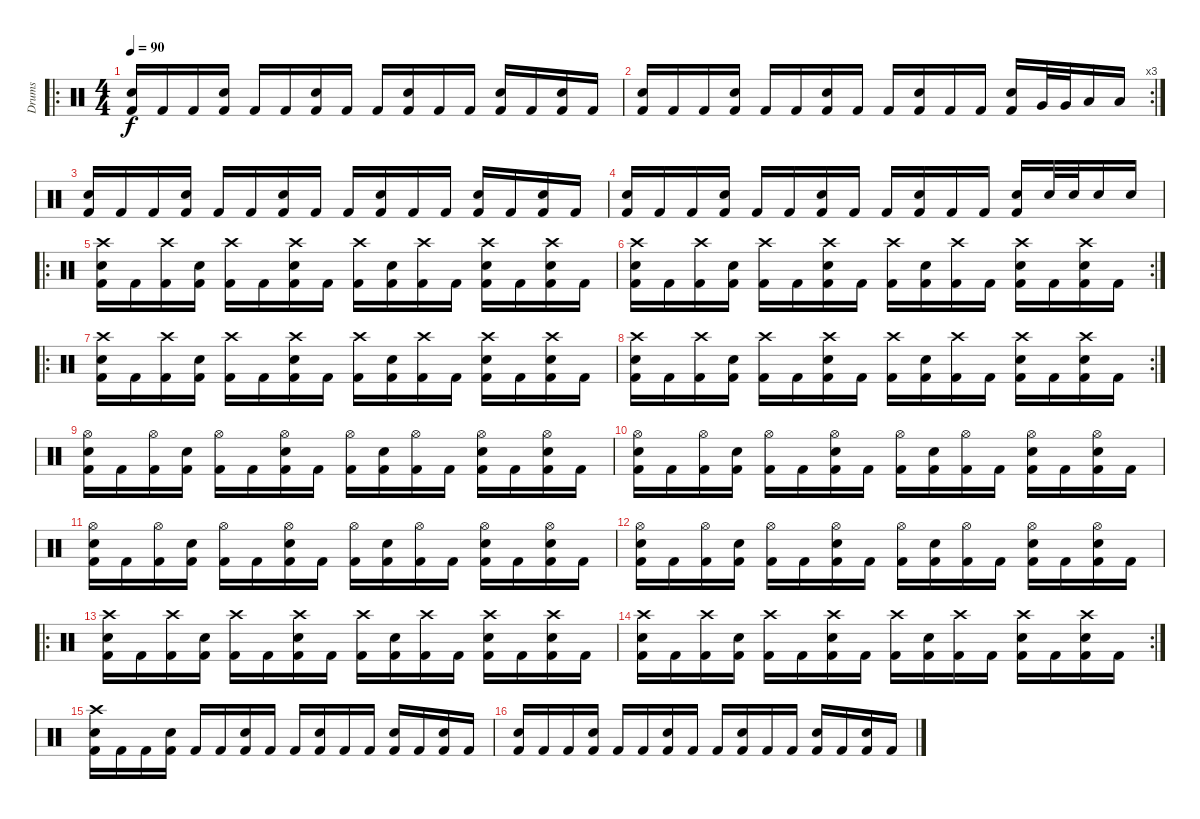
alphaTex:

\track ("Drums" "Drums") {instrument percussion}
\staff {score}
\articulation defaults
\ro
\ts (4 4)
\tempo 90
\clef neutral
\ks c
("Kick (hit) 2" "Snare (hit) 2").16{dy f} "Kick (hit) 2".16 "Kick (hit) 2".16 ("Kick (hit) 2" "Snare (hit) 2").16 "Kick (hit) 2".16 "Kick (hit) 2".16 ("Kick (hit) 2" "Snare (hit) 2").16 "Kick (hit) 2".16 "Kick (hit) 2".16 ("Kick (hit) 2" "Snare (hit) 2").16 "Kick (hit) 2".16 "Kick (hit) 2".16 ("Kick (hit) 2" "Snare (hit) 2").16 "Kick (hit) 2".16 ("Kick (hit) 2" "Snare (hit) 2").16 "Kick (hit) 2".16 |
\rc 3
("Kick (hit) 2" "Snare (hit) 2").16 "Kick (hit) 2".16 "Kick (hit) 2".16 ("Kick (hit) 2" "Snare (hit) 2").16 "Kick (hit) 2".16 "Kick (hit) 2".16 ("Kick (hit) 2" "Snare (hit) 2").16 "Kick (hit) 2".16 "Kick (hit) 2".16 ("Kick (hit) 2" "Snare (hit) 2").16 "Kick (hit) 2".16 "Kick (hit) 2".16 ("Kick (hit) 2" "Snare (hit) 2").16 "Very Low Tom (hit)".32 "Very Low Tom (hit)".32 "Low Floor Tom (hit)".16 "Low Floor Tom (hit)".16 |
("Kick (hit) 2" "Snare (hit) 2").16 "Kick (hit) 2".16 "Kick (hit) 2".16 ("Kick (hit) 2" "Snare (hit) 2").16 "Kick (hit) 2".16 "Kick (hit) 2".16 ("Kick (hit) 2" "Snare (hit) 2").16 "Kick (hit) 2".16 "Kick (hit) 2".16 ("Kick (hit) 2" "Snare (hit) 2").16 "Kick (hit) 2".16 "Kick (hit) 2".16 ("Kick (hit) 2" "Snare (hit) 2").16 "Kick (hit) 2".16 ("Kick (hit) 2" "Snare (hit) 2").16 "Kick (hit) 2".16 |
("Kick (hit) 2" "Snare (hit) 2").16 "Kick (hit) 2".16 "Kick (hit) 2".16 ("Kick (hit) 2" "Snare (hit) 2").16 "Kick (hit) 2".16 "Kick (hit) 2".16 ("Kick (hit) 2" "Snare (hit) 2").16 "Kick (hit) 2".16 "Kick (hit) 2".16 ("Kick (hit) 2" "Snare (hit) 2").16 "Kick (hit) 2".16 "Kick (hit) 2".16 ("Kick (hit) 2" "Snare (hit) 2").16 "Snare (hit) 2".32 "Snare (hit) 2".32 "Snare (hit) 2".16 "Snare (hit) 2".16 |
\ro
("Kick (hit) 2" "Snare (hit) 2" "Crash high (hit)").16 "Kick (hit) 2".16 ("Kick (hit) 2" "Crash high (hit)").16 ("Kick (hit) 2" "Snare (hit) 2").16 ("Kick (hit) 2" "Crash high (hit)").16 "Kick (hit) 2".16 ("Kick (hit) 2" "Snare (hit) 2" "Crash high (hit)").16 "Kick (hit) 2".16 ("Kick (hit) 2" "Crash high (hit)").16 ("Kick (hit) 2" "Snare (hit) 2").16 ("Kick (hit) 2" "Crash high (hit)").16 "Kick (hit) 2".16 ("Kick (hit) 2" "Snare (hit) 2" "Crash high (hit)").16 "Kick (hit) 2".16 ("Kick (hit) 2" "Snare (hit) 2" "Crash high (hit)").16 "Kick (hit) 2".16 |
\rc 2
("Kick (hit) 2" "Snare (hit) 2" "Crash high (hit)").16 "Kick (hit) 2".16 ("Kick (hit) 2" "Crash high (hit)").16 ("Kick (hit) 2" "Snare (hit) 2").16 ("Kick (hit) 2" "Crash high (hit)").16 "Kick (hit) 2".16 ("Kick (hit) 2" "Snare (hit) 2" "Crash high (hit)").16 "Kick (hit) 2".16 ("Kick (hit) 2" "Crash high (hit)").16 ("Kick (hit) 2" "Snare (hit) 2").16 ("Kick (hit) 2" "Crash high (hit)").16 "Kick (hit) 2".16 ("Kick (hit) 2" "Snare (hit) 2" "Crash high (hit)").16 "Kick (hit) 2".16 ("Kick (hit) 2" "Snare (hit) 2" "Crash high (hit)").16 "Kick (hit) 2".16 |
\ro
("Kick (hit) 2" "Snare (hit) 2" "Crash high (hit)").16 "Kick (hit) 2".16 ("Kick (hit) 2" "Crash high (hit)").16 ("Kick (hit) 2" "Snare (hit) 2").16 ("Kick (hit) 2" "Crash high (hit)").16 "Kick (hit) 2".16 ("Kick (hit) 2" "Snare (hit) 2" "Crash high (hit)").16 "Kick (hit) 2".16 ("Kick (hit) 2" "Crash high (hit)").16 ("Kick (hit) 2" "Snare (hit) 2").16 ("Kick (hit) 2" "Crash high (hit)").16 "Kick (hit) 2".16 ("Kick (hit) 2" "Snare (hit) 2" "Crash high (hit)").16 "Kick (hit) 2".16 ("Kick (hit) 2" "Snare (hit) 2" "Crash high (hit)").16 "Kick (hit) 2".16 |
\rc 2
("Kick (hit) 2" "Snare (hit) 2" "Crash high (hit)").16 "Kick (hit) 2".16 ("Kick (hit) 2" "Crash high (hit)").16 ("Kick (hit) 2" "Snare (hit) 2").16 ("Kick (hit) 2" "Crash high (hit)").16 "Kick (hit) 2".16 ("Kick (hit) 2" "Snare (hit) 2" "Crash high (hit)").16 "Kick (hit) 2".16 ("Kick (hit) 2" "Crash high (hit)").16 ("Kick (hit) 2" "Snare (hit) 2").16 ("Kick (hit) 2" "Crash high (hit)").16 "Kick (hit) 2".16 ("Kick (hit) 2" "Snare (hit) 2" "Crash high (hit)").16 "Kick (hit) 2".16 ("Kick (hit) 2" "Snare (hit) 2" "Crash high (hit)").16 "Kick (hit) 2".16 |
("Kick (hit) 2" "Snare (hit) 2" "Hi-Hat (open)").16 "Kick (hit) 2".16 ("Kick (hit) 2" "Hi-Hat (open)").16 ("Kick (hit) 2" "Snare (hit) 2").16 ("Kick (hit) 2" "Hi-Hat (open)").16 "Kick (hit) 2".16 ("Kick (hit) 2" "Snare (hit) 2" "Hi-Hat (open)").16 "Kick (hit) 2".16 ("Kick (hit) 2" "Hi-Hat (open)").16 ("Kick (hit) 2" "Snare (hit) 2").16 ("Kick (hit) 2" "Hi-Hat (open)").16 "Kick (hit) 2".16 ("Kick (hit) 2" "Snare (hit) 2" "Hi-Hat (open)").16 "Kick (hit) 2".16 ("Kick (hit) 2" "Snare (hit) 2" "Hi-Hat (open)").16 "Kick (hit) 2".16 |
("Kick (hit) 2" "Snare (hit) 2" "Hi-Hat (open)").16 "Kick (hit) 2".16 ("Kick (hit) 2" "Hi-Hat (open)").16 ("Kick (hit) 2" "Snare (hit) 2").16 ("Kick (hit) 2" "Hi-Hat (open)").16 "Kick (hit) 2".16 ("Kick (hit) 2" "Snare (hit) 2" "Hi-Hat (open)").16 "Kick (hit) 2".16 ("Kick (hit) 2" "Hi-Hat (open)").16 ("Kick (hit) 2" "Snare (hit) 2").16 ("Kick (hit) 2" "Hi-Hat (open)").16 "Kick (hit) 2".16 ("Kick (hit) 2" "Snare (hit) 2" "Hi-Hat (open)").16 "Kick (hit) 2".16 ("Kick (hit) 2" "Snare (hit) 2" "Hi-Hat (open)").16 "Kick (hit) 2".16 |
("Kick (hit) 2" "Snare (hit) 2" "Hi-Hat (open)").16 "Kick (hit) 2".16 ("Kick (hit) 2" "Hi-Hat (open)").16 ("Kick (hit) 2" "Snare (hit) 2").16 ("Kick (hit) 2" "Hi-Hat (open)").16 "Kick (hit) 2".16 ("Kick (hit) 2" "Snare (hit) 2" "Hi-Hat (open)").16 "Kick (hit) 2".16 ("Kick (hit) 2" "Hi-Hat (open)").16 ("Kick (hit) 2" "Snare (hit) 2").16 ("Kick (hit) 2" "Hi-Hat (open)").16 "Kick (hit) 2".16 ("Kick (hit) 2" "Snare (hit) 2" "Hi-Hat (open)").16 "Kick (hit) 2".16 ("Kick (hit) 2" "Snare (hit) 2" "Hi-Hat (open)").16 "Kick (hit) 2".16 |
("Kick (hit) 2" "Snare (hit) 2" "Hi-Hat (open)").16 "Kick (hit) 2".16 ("Kick (hit) 2" "Hi-Hat (open)").16 ("Kick (hit) 2" "Snare (hit) 2").16 ("Kick (hit) 2" "Hi-Hat (open)").16 "Kick (hit) 2".16 ("Kick (hit) 2" "Snare (hit) 2" "Hi-Hat (open)").16 "Kick (hit) 2".16 ("Kick (hit) 2" "Hi-Hat (open)").16 ("Kick (hit) 2" "Snare (hit) 2").16 ("Kick (hit) 2" "Hi-Hat (open)").16 "Kick (hit) 2".16 ("Kick (hit) 2" "Snare (hit) 2" "Hi-Hat (open)").16 "Kick (hit) 2".16 ("Kick (hit) 2" "Snare (hit) 2" "Hi-Hat (open)").16 "Kick (hit) 2".16 |
\ro
("Kick (hit) 2" "Snare (hit) 2" "Crash high (hit)").16 "Kick (hit) 2".16 ("Kick (hit) 2" "Crash high (hit)").16 ("Kick (hit) 2" "Snare (hit) 2").16 ("Kick (hit) 2" "Crash high (hit)").16 "Kick (hit) 2".16 ("Kick (hit) 2" "Snare (hit) 2" "Crash high (hit)").16 "Kick (hit) 2".16 ("Kick (hit) 2" "Crash high (hit)").16 ("Kick (hit) 2" "Snare (hit) 2").16 ("Kick (hit) 2" "Crash high (hit)").16 "Kick (hit) 2".16 ("Kick (hit) 2" "Snare (hit) 2" "Crash high (hit)").16 "Kick (hit) 2".16 ("Kick (hit) 2" "Snare (hit) 2" "Crash high (hit)").16 "Kick (hit) 2".16 |
\rc 2
("Kick (hit) 2" "Snare (hit) 2" "Crash high (hit)").16 "Kick (hit) 2".16 ("Kick (hit) 2" "Crash high (hit)").16 ("Kick (hit) 2" "Snare (hit) 2").16 ("Kick (hit) 2" "Crash high (hit)").16 "Kick (hit) 2".16 ("Kick (hit) 2" "Snare (hit) 2" "Crash high (hit)").16 "Kick (hit) 2".16 ("Kick (hit) 2" "Crash high (hit)").16 ("Kick (hit) 2" "Snare (hit) 2").16 ("Kick (hit) 2" "Crash high (hit)").16 "Kick (hit) 2".16 ("Kick (hit) 2" "Snare (hit) 2" "Crash high (hit)").16 "Kick (hit) 2".16 ("Kick (hit) 2" "Snare (hit) 2" "Crash high (hit)").16 "Kick (hit) 2".16 |
("Kick (hit) 2" "Snare (hit) 2" "Crash high (hit)").16 "Kick (hit) 2".16 "Kick (hit) 2".16 ("Kick (hit) 2" "Snare (hit) 2").16 "Kick (hit) 2".16 "Kick (hit) 2".16 ("Kick (hit) 2" "Snare (hit) 2").16 "Kick (hit) 2".16 "Kick (hit) 2".16 ("Kick (hit) 2" "Snare (hit) 2").16 "Kick (hit) 2".16 "Kick (hit) 2".16 ("Kick (hit) 2" "Snare (hit) 2").16 "Kick (hit) 2".16 ("Kick (hit) 2" "Snare (hit) 2").16 "Kick (hit) 2".16 |
("Kick (hit) 2" "Snare (hit) 2").16 "Kick (hit) 2".16 "Kick (hit) 2".16 ("Kick (hit) 2" "Snare (hit) 2").16 "Kick (hit) 2".16 "Kick (hit) 2".16 ("Kick (hit) 2" "Snare (hit) 2").16 "Kick (hit) 2".16 "Kick (hit) 2".16 ("Kick (hit) 2" "Snare (hit) 2").16 "Kick (hit) 2".16 "Kick (hit) 2".16 ("Kick (hit) 2" "Snare (hit) 2").16 "Kick (hit) 2".16 ("Kick (hit) 2" "Snare (hit) 2").16 "Kick (hit) 2".16
